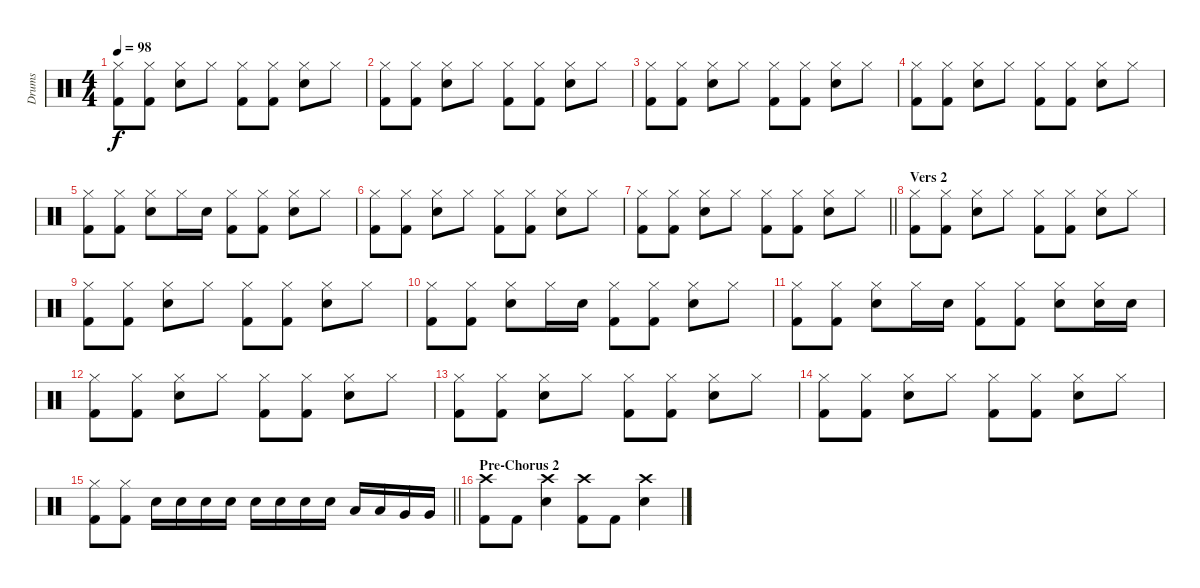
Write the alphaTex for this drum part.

\track ("Drums" "Drums") {instrument percussion}
\staff {score}
\articulation defaults
\ts (4 4)
\tempo 98
\clef neutral
\ks c
("Hi-Hat (closed)" "Kick (hit) 2").8{dy f} ("Hi-Hat (closed)" "Kick (hit) 2").8 ("Hi-Hat (closed)" "Electric Snare (hit)").8 "Hi-Hat (closed)".8 ("Hi-Hat (closed)" "Kick (hit) 2").8 ("Hi-Hat (closed)" "Kick (hit) 2").8 ("Hi-Hat (closed)" "Electric Snare (hit)").8 "Hi-Hat (closed)".8 |
("Hi-Hat (closed)" "Kick (hit) 2").8 ("Hi-Hat (closed)" "Kick (hit) 2").8 ("Hi-Hat (closed)" "Electric Snare (hit)").8 "Hi-Hat (closed)".8 ("Hi-Hat (closed)" "Kick (hit) 2").8 ("Hi-Hat (closed)" "Kick (hit) 2").8 ("Hi-Hat (closed)" "Electric Snare (hit)").8 "Hi-Hat (closed)".8 |
("Hi-Hat (closed)" "Kick (hit) 2").8 ("Hi-Hat (closed)" "Kick (hit) 2").8 ("Hi-Hat (closed)" "Electric Snare (hit)").8 "Hi-Hat (closed)".8 ("Hi-Hat (closed)" "Kick (hit) 2").8 ("Hi-Hat (closed)" "Kick (hit) 2").8 ("Hi-Hat (closed)" "Electric Snare (hit)").8 "Hi-Hat (closed)".8 |
("Hi-Hat (closed)" "Kick (hit) 2").8 ("Hi-Hat (closed)" "Kick (hit) 2").8 ("Hi-Hat (closed)" "Electric Snare (hit)").8 "Hi-Hat (closed)".8 ("Hi-Hat (closed)" "Kick (hit) 2").8 ("Hi-Hat (closed)" "Kick (hit) 2").8 ("Hi-Hat (closed)" "Electric Snare (hit)").8 "Hi-Hat (closed)".8 |
("Hi-Hat (closed)" "Kick (hit) 2").8 ("Hi-Hat (closed)" "Kick (hit) 2").8 ("Hi-Hat (closed)" "Electric Snare (hit)").8 "Hi-Hat (closed)".16 "Electric Snare (hit)".16 ("Hi-Hat (closed)" "Kick (hit) 2").8 ("Hi-Hat (closed)" "Kick (hit) 2").8 ("Hi-Hat (closed)" "Electric Snare (hit)").8 "Hi-Hat (closed)".8 |
("Hi-Hat (closed)" "Kick (hit) 2").8 ("Hi-Hat (closed)" "Kick (hit) 2").8 ("Hi-Hat (closed)" "Electric Snare (hit)").8 "Hi-Hat (closed)".8 ("Hi-Hat (closed)" "Kick (hit) 2").8 ("Hi-Hat (closed)" "Kick (hit) 2").8 ("Hi-Hat (closed)" "Electric Snare (hit)").8 "Hi-Hat (closed)".8 |
\barLineRight lightlight
("Hi-Hat (closed)" "Kick (hit) 2").8 ("Hi-Hat (closed)" "Kick (hit) 2").8 ("Hi-Hat (closed)" "Electric Snare (hit)").8 "Hi-Hat (closed)".8 ("Hi-Hat (closed)" "Kick (hit) 2").8 ("Hi-Hat (closed)" "Kick (hit) 2").8 ("Hi-Hat (closed)" "Electric Snare (hit)").8 "Hi-Hat (closed)".8 |
\section ("" "Vers 2")
("Hi-Hat (closed)" "Kick (hit) 2").8 ("Hi-Hat (closed)" "Kick (hit) 2").8 ("Hi-Hat (closed)" "Electric Snare (hit)").8 "Hi-Hat (closed)".8 ("Hi-Hat (closed)" "Kick (hit) 2").8 ("Hi-Hat (closed)" "Kick (hit) 2").8 ("Hi-Hat (closed)" "Electric Snare (hit)").8 "Hi-Hat (closed)".8 |
("Hi-Hat (closed)" "Kick (hit) 2").8 ("Hi-Hat (closed)" "Kick (hit) 2").8 ("Hi-Hat (closed)" "Electric Snare (hit)").8 "Hi-Hat (closed)".8 ("Hi-Hat (closed)" "Kick (hit) 2").8 ("Hi-Hat (closed)" "Kick (hit) 2").8 ("Hi-Hat (closed)" "Electric Snare (hit)").8 "Hi-Hat (closed)".8 |
("Hi-Hat (closed)" "Kick (hit) 2").8 ("Hi-Hat (closed)" "Kick (hit) 2").8 ("Hi-Hat (closed)" "Electric Snare (hit)").8 "Hi-Hat (closed)".16 "Electric Snare (hit)".16 ("Hi-Hat (closed)" "Kick (hit) 2").8 ("Hi-Hat (closed)" "Kick (hit) 2").8 ("Hi-Hat (closed)" "Electric Snare (hit)").8 "Hi-Hat (closed)".8 |
("Hi-Hat (closed)" "Kick (hit) 2").8 ("Hi-Hat (closed)" "Kick (hit) 2").8 ("Hi-Hat (closed)" "Electric Snare (hit)").8 "Hi-Hat (closed)".16 "Electric Snare (hit)".16 ("Hi-Hat (closed)" "Kick (hit) 2").8 ("Hi-Hat (closed)" "Kick (hit) 2").8 ("Hi-Hat (closed)" "Electric Snare (hit)").8 ("Hi-Hat (closed)" "Electric Snare (hit)").16 "Electric Snare (hit)".16 |
("Hi-Hat (closed)" "Kick (hit) 2").8 ("Hi-Hat (closed)" "Kick (hit) 2").8 ("Hi-Hat (closed)" "Electric Snare (hit)").8 "Hi-Hat (closed)".8 ("Hi-Hat (closed)" "Kick (hit) 2").8 ("Hi-Hat (closed)" "Kick (hit) 2").8 ("Hi-Hat (closed)" "Electric Snare (hit)").8 "Hi-Hat (closed)".8 |
("Hi-Hat (closed)" "Kick (hit) 2").8 ("Hi-Hat (closed)" "Kick (hit) 2").8 ("Hi-Hat (closed)" "Electric Snare (hit)").8 "Hi-Hat (closed)".8 ("Hi-Hat (closed)" "Kick (hit) 2").8 ("Hi-Hat (closed)" "Kick (hit) 2").8 ("Hi-Hat (closed)" "Electric Snare (hit)").8 "Hi-Hat (closed)".8 |
("Hi-Hat (closed)" "Kick (hit) 2").8 ("Hi-Hat (closed)" "Kick (hit) 2").8 ("Hi-Hat (closed)" "Electric Snare (hit)").8 "Hi-Hat (closed)".8 ("Hi-Hat (closed)" "Kick (hit) 2").8 ("Hi-Hat (closed)" "Kick (hit) 2").8 ("Hi-Hat (closed)" "Electric Snare (hit)").8 "Hi-Hat (closed)".8 |
\barLineRight lightlight
("Hi-Hat (closed)" "Kick (hit) 2").8 ("Hi-Hat (closed)" "Kick (hit) 2").8 "Electric Snare (hit)".16 "Electric Snare (hit)".16 "Electric Snare (hit)".16 "Electric Snare (hit)".16 "Electric Snare (hit)".16 "Electric Snare (hit)".16 "Electric Snare (hit)".16 "Electric Snare (hit)".16 "Low Tom (hit)".16 "Low Tom (hit)".16 "Very Low Tom (hit)".16 "Very Low Tom (hit)".16 |
\section ("" "Pre-Chorus 2")
("Crash high (hit)" "Kick (hit) 2").8 "Kick (hit) 2".8 ("Crash high (hit)" "Electric Snare (hit)").4 ("Crash high (hit)" "Kick (hit) 2").8 "Kick (hit) 2".8 ("Crash high (hit)" "Electric Snare (hit)").4
